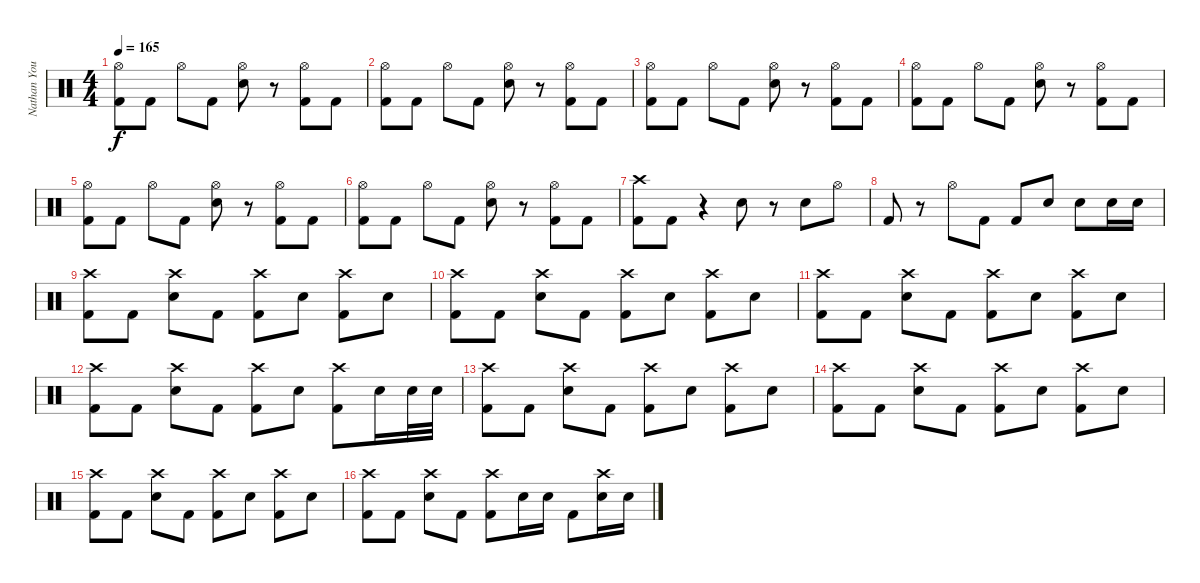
\track ("Nathan Young" "Nathan You") {instrument percussion}
\staff {score}
\articulation defaults
\ts (4 4)
\tempo 165
\clef neutral
\ks c
("Hi-Hat (open)" "Kick (hit) 2").8{dy f} "Kick (hit) 2".8 "Hi-Hat (open)".8 "Kick (hit) 2".8 ("Hi-Hat (open)" "Snare (hit) 2").8 r.8 ("Hi-Hat (open)" "Kick (hit) 2").8 "Kick (hit) 2".8 |
("Hi-Hat (open)" "Kick (hit) 2").8 "Kick (hit) 2".8 "Hi-Hat (open)".8 "Kick (hit) 2".8 ("Hi-Hat (open)" "Snare (hit) 2").8 r.8 ("Hi-Hat (open)" "Kick (hit) 2").8 "Kick (hit) 2".8 |
("Hi-Hat (open)" "Kick (hit) 2").8 "Kick (hit) 2".8 "Hi-Hat (open)".8 "Kick (hit) 2".8 ("Hi-Hat (open)" "Snare (hit) 2").8 r.8 ("Hi-Hat (open)" "Kick (hit) 2").8 "Kick (hit) 2".8 |
("Hi-Hat (open)" "Kick (hit) 2").8 "Kick (hit) 2".8 "Hi-Hat (open)".8 "Kick (hit) 2".8 ("Hi-Hat (open)" "Snare (hit) 2").8 r.8 ("Hi-Hat (open)" "Kick (hit) 2").8 "Kick (hit) 2".8 |
("Hi-Hat (open)" "Kick (hit) 2").8 "Kick (hit) 2".8 "Hi-Hat (open)".8 "Kick (hit) 2".8 ("Hi-Hat (open)" "Snare (hit) 2").8 r.8 ("Hi-Hat (open)" "Kick (hit) 2").8 "Kick (hit) 2".8 |
("Hi-Hat (open)" "Kick (hit) 2").8 "Kick (hit) 2".8 "Hi-Hat (open)".8 "Kick (hit) 2".8 ("Hi-Hat (open)" "Snare (hit) 2").8 r.8 ("Hi-Hat (open)" "Kick (hit) 2").8 "Kick (hit) 2".8 |
("Crash high (hit)" "Kick (hit) 2").8 "Kick (hit) 2".8 r.4 "Snare (hit) 2".8 r.8 "Snare (hit) 2".8 "Hi-Hat (open)".8 |
"Kick (hit) 2".8 r.8 "Hi-Hat (open)".8 "Kick (hit) 2".8 "Kick (hit) 2".8 "Snare (hit) 2".8 "Snare (hit) 2".8 "Snare (hit) 2".16 "Snare (hit) 2".16 |
("Crash high (hit)" "Kick (hit) 2").8 "Kick (hit) 2".8 ("Crash high (hit)" "Snare (hit) 2").8 "Kick (hit) 2".8 ("Crash high (hit)" "Kick (hit) 2").8 "Snare (hit) 2".8 ("Crash high (hit)" "Kick (hit) 2").8 "Snare (hit) 2".8 |
("Crash high (hit)" "Kick (hit) 2").8 "Kick (hit) 2".8 ("Crash high (hit)" "Snare (hit) 2").8 "Kick (hit) 2".8 ("Crash high (hit)" "Kick (hit) 2").8 "Snare (hit) 2".8 ("Crash high (hit)" "Kick (hit) 2").8 "Snare (hit) 2".8 |
("Crash high (hit)" "Kick (hit) 2").8 "Kick (hit) 2".8 ("Crash high (hit)" "Snare (hit) 2").8 "Kick (hit) 2".8 ("Crash high (hit)" "Kick (hit) 2").8 "Snare (hit) 2".8 ("Crash high (hit)" "Kick (hit) 2").8 "Snare (hit) 2".8 |
("Crash high (hit)" "Kick (hit) 2").8 "Kick (hit) 2".8 ("Crash high (hit)" "Snare (hit) 2").8 "Kick (hit) 2".8 ("Crash high (hit)" "Kick (hit) 2").8 "Snare (hit) 2".8 ("Crash high (hit)" "Kick (hit) 2").8 "Snare (hit) 2".16 "Snare (hit) 2".32 "Snare (hit) 2".32 |
("Crash high (hit)" "Kick (hit) 2").8 "Kick (hit) 2".8 ("Crash high (hit)" "Snare (hit) 2").8 "Kick (hit) 2".8 ("Crash high (hit)" "Kick (hit) 2").8 "Snare (hit) 2".8 ("Crash high (hit)" "Kick (hit) 2").8 "Snare (hit) 2".8 |
("Crash high (hit)" "Kick (hit) 2").8 "Kick (hit) 2".8 ("Crash high (hit)" "Snare (hit) 2").8 "Kick (hit) 2".8 ("Crash high (hit)" "Kick (hit) 2").8 "Snare (hit) 2".8 ("Crash high (hit)" "Kick (hit) 2").8 "Snare (hit) 2".8 |
("Crash high (hit)" "Kick (hit) 2").8 "Kick (hit) 2".8 ("Crash high (hit)" "Snare (hit) 2").8 "Kick (hit) 2".8 ("Crash high (hit)" "Kick (hit) 2").8 "Snare (hit) 2".8 ("Crash high (hit)" "Kick (hit) 2").8 "Snare (hit) 2".8 |
("Crash high (hit)" "Kick (hit) 2").8 "Kick (hit) 2".8 ("Crash high (hit)" "Snare (hit) 2").8 "Kick (hit) 2".8 ("Crash high (hit)" "Kick (hit) 2").8 "Snare (hit) 2".16 "Snare (hit) 2".16 "Kick (hit) 2".8 ("Crash high (hit)" "Snare (hit) 2").16 "Snare (hit) 2".16
